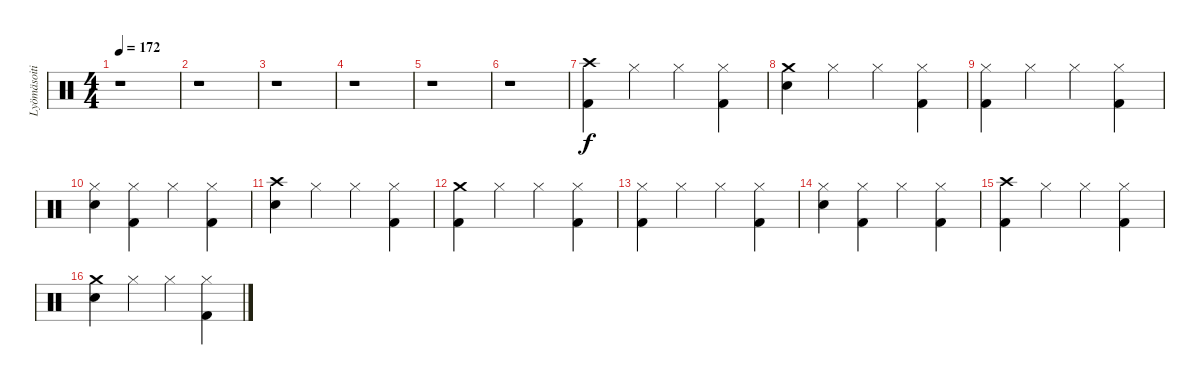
\track ("Lyömäsoitin" "Lyömäsoiti") {instrument percussion}
\staff {score}
\articulation defaults
\ts (4 4)
\tempo 172
\clef neutral
\ks c
r.1{dy f} |
r.1 |
r.1 |
r.1 |
r.1 |
r.1 |
("Kick (hit) 2" "Crash high (hit)").4 "Hi-Hat (closed)".4 "Hi-Hat (closed)".4 ("Kick (hit) 2" "Hi-Hat (closed)").4 |
("Crash medium (hit)" "Snare (hit) 2").4 "Hi-Hat (closed)".4 "Hi-Hat (closed)".4 ("Kick (hit) 2" "Hi-Hat (closed)").4 |
("Kick (hit) 2" "Hi-Hat (closed)").4 "Hi-Hat (closed)".4 "Hi-Hat (closed)".4 ("Kick (hit) 2" "Hi-Hat (closed)").4 |
("Hi-Hat (closed)" "Snare (hit) 2").4 ("Kick (hit) 2" "Hi-Hat (closed)").4 "Hi-Hat (closed)".4 ("Kick (hit) 2" "Hi-Hat (closed)").4 |
("Crash high (hit)" "Snare (hit) 2").4 "Hi-Hat (closed)".4 "Hi-Hat (closed)".4 ("Kick (hit) 2" "Hi-Hat (closed)").4 |
("Kick (hit) 2" "Crash medium (hit)").4 "Hi-Hat (closed)".4 "Hi-Hat (closed)".4 ("Kick (hit) 2" "Hi-Hat (closed)").4 |
("Kick (hit) 2" "Hi-Hat (closed)").4 "Hi-Hat (closed)".4 "Hi-Hat (closed)".4 ("Kick (hit) 2" "Hi-Hat (closed)").4 |
("Hi-Hat (closed)" "Snare (hit) 2").4 ("Kick (hit) 2" "Hi-Hat (closed)").4 "Hi-Hat (closed)".4 ("Kick (hit) 2" "Hi-Hat (closed)").4 |
("Kick (hit) 2" "Crash high (hit)").4 "Hi-Hat (closed)".4 "Hi-Hat (closed)".4 ("Kick (hit) 2" "Hi-Hat (closed)").4 |
("Crash medium (hit)" "Snare (hit) 2").4 "Hi-Hat (closed)".4 "Hi-Hat (closed)".4 ("Kick (hit) 2" "Hi-Hat (closed)").4
